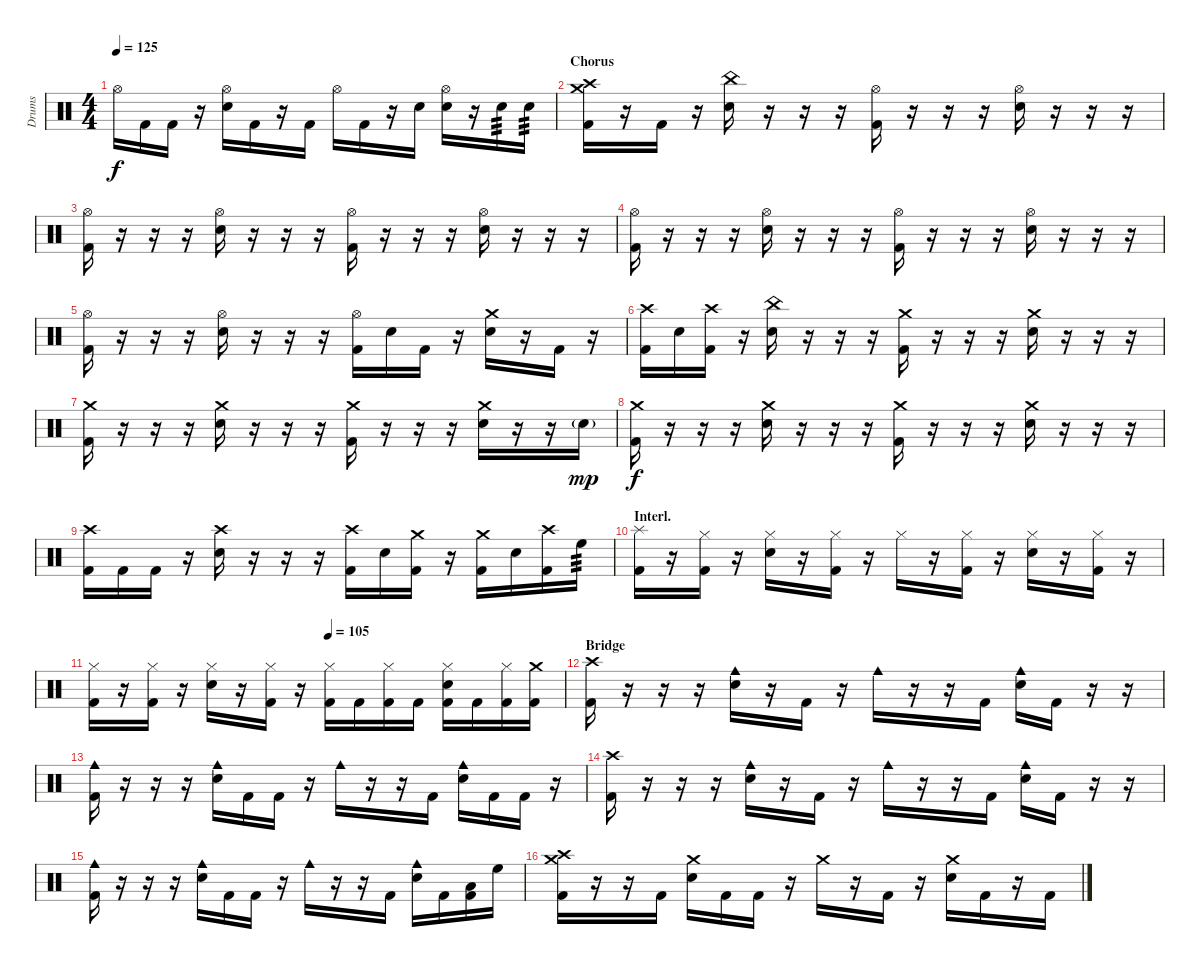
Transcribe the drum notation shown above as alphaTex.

\track ("Drums" "Drums") {instrument percussion}
\staff {score}
\articulation defaults
\ts (4 4)
\tempo 125
\clef neutral
\ks c "Hi-Hat (open)".16{dy f} "Kick (hit) 2".16 "Kick (hit) 2".16
r.16 ("Hi-Hat (open)" "Electric Snare (hit)").16 "Kick (hit) 2".16 r.16 "Kick (hit) 2".16 "Hi-Hat (open)".16 "Kick (hit) 2".16 r.16 "Electric Snare (hit)".16 ("Hi-Hat (open)" "Electric Snare (hit)").16 r.16 "Electric Snare (hit)".16{tp 3} "Electric Snare (hit)".16{tp 3} |
\section ("" "Chorus")
("Crash high (hit)" "Crash medium (hit)" "Kick (hit) 2").16 r.16 "Kick (hit) 2".16 r.16 ("China (hit)" "Electric Snare (hit)").16 r.16 r.16 r.16 ("Hi-Hat (open)" "Kick (hit) 2").16 r.16 r.16 r.16 ("Hi-Hat (open)" "Electric Snare (hit)").16 r.16 r.16 r.16 |
("Hi-Hat (open)" "Kick (hit) 2").16 r.16 r.16 r.16 ("Hi-Hat (open)" "Electric Snare (hit)").16 r.16 r.16 r.16 ("Hi-Hat (open)" "Kick (hit) 2").16 r.16 r.16 r.16 ("Hi-Hat (open)" "Electric Snare (hit)").16 r.16 r.16 r.16 |
("Hi-Hat (open)" "Kick (hit) 2").16 r.16 r.16 r.16 ("Hi-Hat (open)" "Electric Snare (hit)").16 r.16 r.16 r.16 ("Hi-Hat (open)" "Kick (hit) 2").16 r.16 r.16 r.16 ("Hi-Hat (open)" "Electric Snare (hit)").16 r.16 r.16 r.16 |
("Hi-Hat (open)" "Kick (hit) 2").16 r.16 r.16 r.16 ("Hi-Hat (open)" "Electric Snare (hit)").16 r.16 r.16 r.16 ("Hi-Hat (open)" "Kick (hit) 2").16 "Electric Snare (hit)".16 "Kick (hit) 2".16 r.16 ("Crash medium (hit)" "Electric Snare (hit)").16 r.16 "Kick (hit) 2".16 r.16 |
("Crash high (hit)" "Kick (hit) 2").16 "Electric Snare (hit)".16 ("Crash high (hit)" "Kick (hit) 2").16 r.16 ("China (hit)" "Electric Snare (hit)").16 r.16 r.16 r.16 ("Crash medium (hit)" "Kick (hit) 2").16 r.16 r.16 r.16 ("Crash medium (hit)" "Electric Snare (hit)").16 r.16 r.16 r.16 |
("Crash medium (hit)" "Kick (hit) 2").16 r.16 r.16 r.16 ("Crash medium (hit)" "Electric Snare (hit)").16 r.16 r.16 r.16 ("Crash medium (hit)" "Kick (hit) 2").16 r.16 r.16 r.16 ("Crash medium (hit)" "Electric Snare (hit)").16 r.16 r.16 "Electric Snare (hit)"{g}.16{dy mp} |
("Crash medium (hit)" "Kick (hit) 2").16{dy f} r.16 r.16 r.16 ("Crash medium (hit)" "Electric Snare (hit)").16 r.16 r.16 r.16 ("Crash medium (hit)" "Kick (hit) 2").16 r.16 r.16 r.16 ("Crash medium (hit)" "Electric Snare (hit)").16 r.16 r.16 r.16 |
("Crash high (hit)" "Kick (hit) 2").16 "Kick (hit) 2".16 "Kick (hit) 2".16 r.16 ("Crash high (hit)" "Electric Snare (hit)").16 r.16 r.16 r.16 ("Crash high (hit)" "Kick (hit) 2").16 "Electric Snare (hit)".16 ("Crash medium (hit)" "Kick (hit) 2").16 r.16 ("Crash medium (hit)" "Kick (hit) 2").16 "Electric Snare (hit)".16 ("Crash high (hit)" "Kick (hit) 2").16 "High Floor Tom (hit)".16{tp 3} |
\section ("" "Interl.")
("Splash (hit)" "Kick (hit) 2").16 r.16 ("Hi-Hat (closed)" "Kick (hit) 2").16 r.16 ("Hi-Hat (closed)" "Electric Snare (hit)").16 r.16 ("Hi-Hat (closed)" "Kick (hit) 2").16 r.16 "Hi-Hat (closed)".16 r.16 ("Hi-Hat (closed)" "Kick (hit) 2").16 r.16 ("Hi-Hat (closed)" "Electric Snare (hit)").16 r.16 ("Hi-Hat (closed)" "Kick (hit) 2").16 r.16 |
\tempo (105 0.5)
("Hi-Hat (closed)" "Kick (hit) 2").16 r.16 ("Hi-Hat (closed)" "Kick (hit) 2").16 r.16 ("Hi-Hat (closed)" "Electric Snare (hit)").16 r.16 ("Hi-Hat (closed)" "Kick (hit) 2").16 r.16 ("Hi-Hat (closed)" "Kick (hit) 2").16 "Kick (hit) 2".16 ("Hi-Hat (closed)" "Kick (hit) 2").16 "Kick (hit) 2".16 ("Hi-Hat (closed)" "Electric Snare (hit)" "Kick (hit) 2").16 "Kick (hit) 2".16 ("Hi-Hat (closed)" "Kick (hit) 2").16 ("Crash medium (hit)" "Kick (hit) 2").16 |
\section ("" "Bridge")
("Crash high (hit)" "Kick (hit) 2").16 r.16 r.16 r.16 ("Cowbell medium (hit)" "Electric Snare (hit)").16 r.16 "Kick (hit) 2".16 r.16 "Cowbell medium (hit)".16 r.16 r.16 "Kick (hit) 2".16 ("Cowbell medium (hit)" "Electric Snare (hit)").16 "Kick (hit) 2".16 r.16 r.16 |
("Cowbell medium (hit)" "Kick (hit) 2").16 r.16 r.16 r.16 ("Cowbell medium (hit)" "Electric Snare (hit)").16 "Kick (hit) 2".16 "Kick (hit) 2".16 r.16 "Cowbell medium (hit)".16 r.16 r.16 "Kick (hit) 2".16 ("Cowbell medium (hit)" "Electric Snare (hit)").16 "Kick (hit) 2".16 "Kick (hit) 2".16 r.16 |
("Crash high (hit)" "Kick (hit) 2").16 r.16 r.16 r.16 ("Cowbell medium (hit)" "Electric Snare (hit)").16 r.16 "Kick (hit) 2".16 r.16 "Cowbell medium (hit)".16 r.16 r.16 "Kick (hit) 2".16 ("Cowbell medium (hit)" "Electric Snare (hit)").16 "Kick (hit) 2".16 r.16 r.16 |
("Cowbell medium (hit)" "Kick (hit) 2").16 r.16 r.16 r.16 ("Cowbell medium (hit)" "Electric Snare (hit)").16 "Kick (hit) 2".16 "Kick (hit) 2".16 r.16 "Cowbell medium (hit)".16 r.16 r.16 "Kick (hit) 2".16 ("Cowbell medium (hit)" "Electric Snare (hit)").16 "Kick (hit) 2".16 ("Low Tom (hit)" "Kick (hit) 2").16 "High Floor Tom (hit)".16 |
("Crash medium (hit)" "Crash high (hit)" "Kick (hit) 2").16 r.16 r.16 "Kick (hit) 2".16 ("Crash medium (hit)" "Electric Snare (hit)").16 "Kick (hit) 2".16 "Kick (hit) 2".16 r.16 "Crash medium (hit)".16 r.16 "Kick (hit) 2".16 r.16 ("Crash medium (hit)" "Electric Snare (hit)").16 "Kick (hit) 2".16 r.16 "Kick (hit) 2".16
